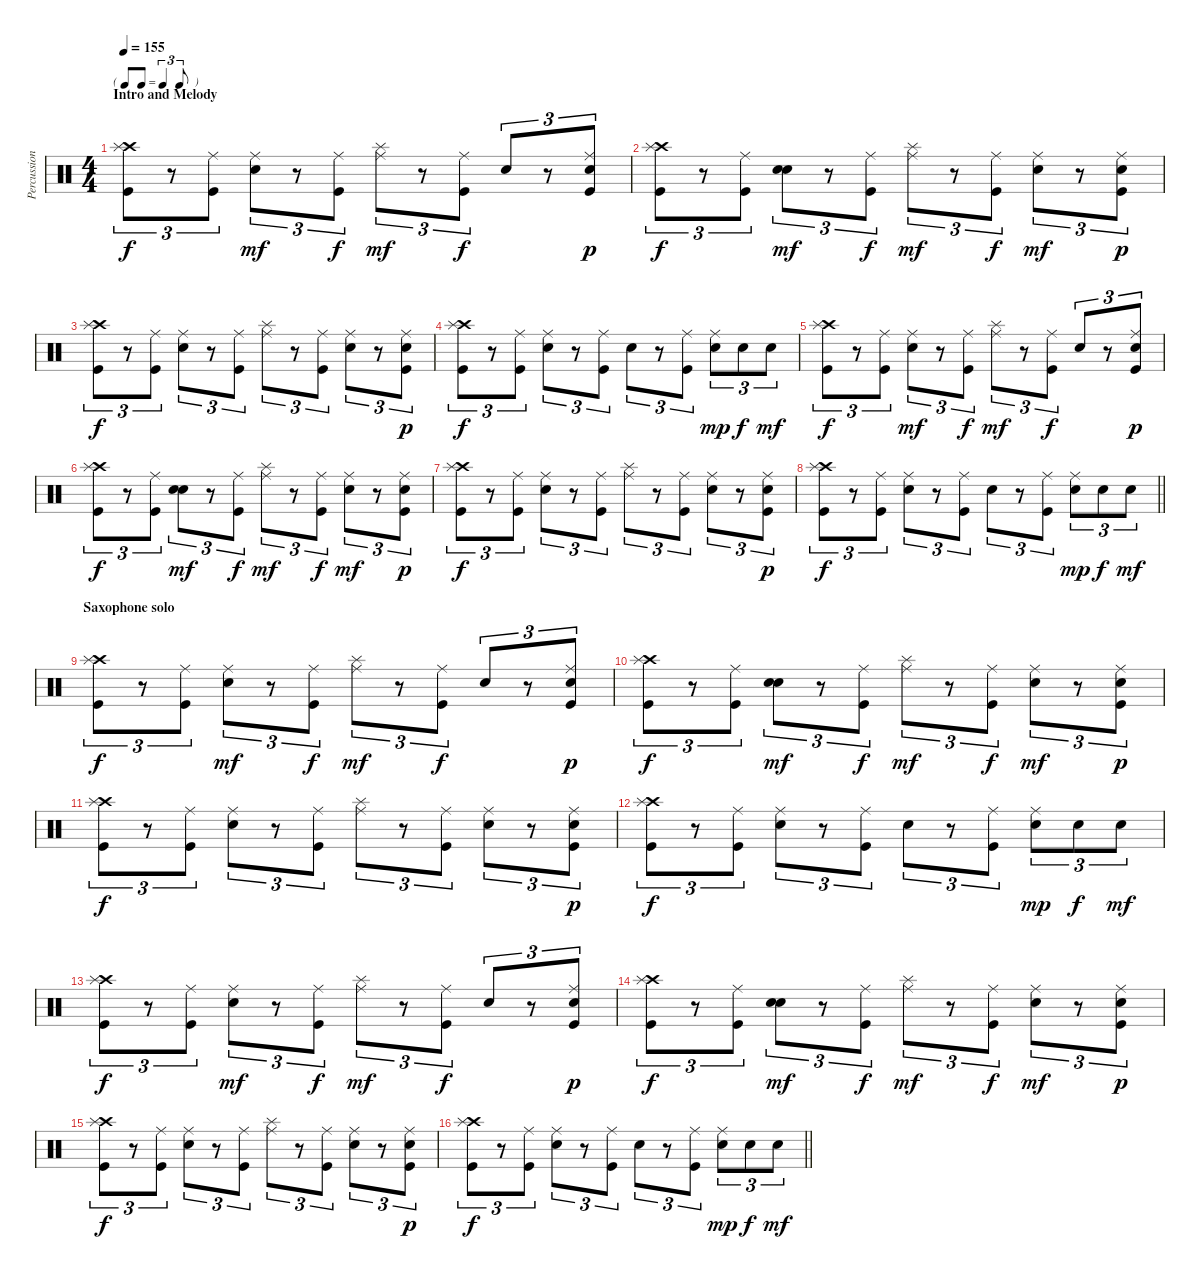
\track ("Percussion" "Percussion") {instrument percussion}
\staff {score}
\articulation defaults
\ts (4 4)
\tf triplet8th
\section ("" "Intro and Melody")
\tempo 155
\clef neutral
\ks c
("Crash high (hit)" "Splash (hit)" "Kick (hit)").8{tu (3 2) dy f} r.8{tu (3 2)} ("Ride (middle)" "Kick (hit)").8{tu (3 2)} ("Ride (middle)" "Electric Snare (hit)").8{tu (3 2) dy mf} r.8{tu (3 2)} ("Ride (middle)" "Kick (hit)").8{tu (3 2) dy f} ("Ride (middle)" "Splash (hit)").8{tu (3 2) dy mf} r.8{tu (3 2)} ("Ride (middle)" "Kick (hit)").8{tu (3 2) dy f} "Electric Snare (hit)".8{tu (3 2)} r.8{tu (3 2)} ("Ride (middle)" "Electric Snare (hit)" "Kick (hit)").8{tu (3 2) dy p} |
("Crash high (hit)" "Splash (hit)" "Kick (hit)").8{tu (3 2) dy f} r.8{tu (3 2)} ("Ride (middle)" "Kick (hit)").8{tu (3 2)} ("Snare (hit)" "Electric Snare (hit)").8{tu (3 2) dy mf} r.8{tu (3 2)} ("Ride (middle)" "Kick (hit)").8{tu (3 2) dy f} ("Ride (middle)" "Splash (hit)").8{tu (3 2) dy mf} r.8{tu (3 2)} ("Ride (middle)" "Kick (hit)").8{tu (3 2) dy f} ("Ride (middle)" "Electric Snare (hit)").8{tu (3 2) dy mf} r.8{tu (3 2)} ("Ride (middle)" "Electric Snare (hit)" "Kick (hit)").8{tu (3 2) dy p} |
("Crash high (hit)" "Splash (hit)" "Kick (hit)").8{tu (3 2) dy f} r.8{tu (3 2)} ("Ride (middle)" "Kick (hit)").8{tu (3 2)} ("Ride (middle)" "Electric Snare (hit)").8{tu (3 2)} r.8{tu (3 2)} ("Ride (middle)" "Kick (hit)").8{tu (3 2)} ("Ride (middle)" "Splash (hit)").8{tu (3 2)} r.8{tu (3 2)} ("Ride (middle)" "Kick (hit)").8{tu (3 2)} ("Ride (middle)" "Electric Snare (hit)").8{tu (3 2)} r.8{tu (3 2)} ("Ride (middle)" "Electric Snare (hit)" "Kick (hit)").8{tu (3 2) dy p} |
("Crash high (hit)" "Splash (hit)" "Kick (hit)").8{tu (3 2) dy f} r.8{tu (3 2)} ("Ride (middle)" "Kick (hit)").8{tu (3 2)} ("Ride (middle)" "Electric Snare (hit)").8{tu (3 2)} r.8{tu (3 2)} ("Ride (middle)" "Kick (hit)").8{tu (3 2)} "Electric Snare (hit)".8{tu (3 2)} r.8{tu (3 2)} ("Ride (middle)" "Kick (hit)").8{tu (3 2)} ("Ride (middle)" "Electric Snare (hit)").8{tu (3 2) dy mp} "Electric Snare (hit)".8{tu (3 2) dy f} "Electric Snare (hit)".8{tu (3 2) dy mf} |
("Crash high (hit)" "Splash (hit)" "Kick (hit)").8{tu (3 2) dy f} r.8{tu (3 2)} ("Ride (middle)" "Kick (hit)").8{tu (3 2)} ("Ride (middle)" "Electric Snare (hit)").8{tu (3 2) dy mf} r.8{tu (3 2)} ("Ride (middle)" "Kick (hit)").8{tu (3 2) dy f} ("Ride (middle)" "Splash (hit)").8{tu (3 2) dy mf} r.8{tu (3 2)} ("Ride (middle)" "Kick (hit)").8{tu (3 2) dy f} "Electric Snare (hit)".8{tu (3 2)} r.8{tu (3 2)} ("Ride (middle)" "Electric Snare (hit)" "Kick (hit)").8{tu (3 2) dy p} |
("Crash high (hit)" "Splash (hit)" "Kick (hit)").8{tu (3 2) dy f} r.8{tu (3 2)} ("Ride (middle)" "Kick (hit)").8{tu (3 2)} ("Snare (hit)" "Electric Snare (hit)").8{tu (3 2) dy mf} r.8{tu (3 2)} ("Ride (middle)" "Kick (hit)").8{tu (3 2) dy f} ("Ride (middle)" "Splash (hit)").8{tu (3 2) dy mf} r.8{tu (3 2)} ("Ride (middle)" "Kick (hit)").8{tu (3 2) dy f} ("Ride (middle)" "Electric Snare (hit)").8{tu (3 2) dy mf} r.8{tu (3 2)} ("Ride (middle)" "Electric Snare (hit)" "Kick (hit)").8{tu (3 2) dy p} |
("Crash high (hit)" "Splash (hit)" "Kick (hit)").8{tu (3 2) dy f} r.8{tu (3 2)} ("Ride (middle)" "Kick (hit)").8{tu (3 2)} ("Ride (middle)" "Electric Snare (hit)").8{tu (3 2)} r.8{tu (3 2)} ("Ride (middle)" "Kick (hit)").8{tu (3 2)} ("Ride (middle)" "Splash (hit)").8{tu (3 2)} r.8{tu (3 2)} ("Ride (middle)" "Kick (hit)").8{tu (3 2)} ("Ride (middle)" "Electric Snare (hit)").8{tu (3 2)} r.8{tu (3 2)} ("Ride (middle)" "Electric Snare (hit)" "Kick (hit)").8{tu (3 2) dy p} |
\barLineRight lightlight
("Crash high (hit)" "Splash (hit)" "Kick (hit)").8{tu (3 2) dy f} r.8{tu (3 2)} ("Ride (middle)" "Kick (hit)").8{tu (3 2)} ("Ride (middle)" "Electric Snare (hit)").8{tu (3 2)} r.8{tu (3 2)} ("Ride (middle)" "Kick (hit)").8{tu (3 2)} "Electric Snare (hit)".8{tu (3 2)} r.8{tu (3 2)} ("Ride (middle)" "Kick (hit)").8{tu (3 2)} ("Ride (middle)" "Electric Snare (hit)").8{tu (3 2) dy mp} "Electric Snare (hit)".8{tu (3 2) dy f} "Electric Snare (hit)".8{tu (3 2) dy mf} |
\section ("" "Saxophone solo")
("Crash high (hit)" "Splash (hit)" "Kick (hit)").8{tu (3 2) dy f} r.8{tu (3 2)} ("Ride (middle)" "Kick (hit)").8{tu (3 2)} ("Ride (middle)" "Electric Snare (hit)").8{tu (3 2) dy mf} r.8{tu (3 2)} ("Ride (middle)" "Kick (hit)").8{tu (3 2) dy f} ("Ride (middle)" "Splash (hit)").8{tu (3 2) dy mf} r.8{tu (3 2)} ("Ride (middle)" "Kick (hit)").8{tu (3 2) dy f} "Electric Snare (hit)".8{tu (3 2)} r.8{tu (3 2)} ("Ride (middle)" "Electric Snare (hit)" "Kick (hit)").8{tu (3 2) dy p} |
("Crash high (hit)" "Splash (hit)" "Kick (hit)").8{tu (3 2) dy f} r.8{tu (3 2)} ("Ride (middle)" "Kick (hit)").8{tu (3 2)} ("Snare (hit)" "Electric Snare (hit)").8{tu (3 2) dy mf} r.8{tu (3 2)} ("Ride (middle)" "Kick (hit)").8{tu (3 2) dy f} ("Ride (middle)" "Splash (hit)").8{tu (3 2) dy mf} r.8{tu (3 2)} ("Ride (middle)" "Kick (hit)").8{tu (3 2) dy f} ("Ride (middle)" "Electric Snare (hit)").8{tu (3 2) dy mf} r.8{tu (3 2)} ("Ride (middle)" "Electric Snare (hit)" "Kick (hit)").8{tu (3 2) dy p} |
("Crash high (hit)" "Splash (hit)" "Kick (hit)").8{tu (3 2) dy f} r.8{tu (3 2)} ("Ride (middle)" "Kick (hit)").8{tu (3 2)} ("Ride (middle)" "Electric Snare (hit)").8{tu (3 2)} r.8{tu (3 2)} ("Ride (middle)" "Kick (hit)").8{tu (3 2)} ("Ride (middle)" "Splash (hit)").8{tu (3 2)} r.8{tu (3 2)} ("Ride (middle)" "Kick (hit)").8{tu (3 2)} ("Ride (middle)" "Electric Snare (hit)").8{tu (3 2)} r.8{tu (3 2)} ("Ride (middle)" "Electric Snare (hit)" "Kick (hit)").8{tu (3 2) dy p} |
("Crash high (hit)" "Splash (hit)" "Kick (hit)").8{tu (3 2) dy f} r.8{tu (3 2)} ("Ride (middle)" "Kick (hit)").8{tu (3 2)} ("Ride (middle)" "Electric Snare (hit)").8{tu (3 2)} r.8{tu (3 2)} ("Ride (middle)" "Kick (hit)").8{tu (3 2)} "Electric Snare (hit)".8{tu (3 2)} r.8{tu (3 2)} ("Ride (middle)" "Kick (hit)").8{tu (3 2)} ("Ride (middle)" "Electric Snare (hit)").8{tu (3 2) dy mp} "Electric Snare (hit)".8{tu (3 2) dy f} "Electric Snare (hit)".8{tu (3 2) dy mf} |
("Crash high (hit)" "Splash (hit)" "Kick (hit)").8{tu (3 2) dy f} r.8{tu (3 2)} ("Ride (middle)" "Kick (hit)").8{tu (3 2)} ("Ride (middle)" "Electric Snare (hit)").8{tu (3 2) dy mf} r.8{tu (3 2)} ("Ride (middle)" "Kick (hit)").8{tu (3 2) dy f} ("Ride (middle)" "Splash (hit)").8{tu (3 2) dy mf} r.8{tu (3 2)} ("Ride (middle)" "Kick (hit)").8{tu (3 2) dy f} "Electric Snare (hit)".8{tu (3 2)} r.8{tu (3 2)} ("Ride (middle)" "Electric Snare (hit)" "Kick (hit)").8{tu (3 2) dy p} |
("Crash high (hit)" "Splash (hit)" "Kick (hit)").8{tu (3 2) dy f} r.8{tu (3 2)} ("Ride (middle)" "Kick (hit)").8{tu (3 2)} ("Snare (hit)" "Electric Snare (hit)").8{tu (3 2) dy mf} r.8{tu (3 2)} ("Ride (middle)" "Kick (hit)").8{tu (3 2) dy f} ("Ride (middle)" "Splash (hit)").8{tu (3 2) dy mf} r.8{tu (3 2)} ("Ride (middle)" "Kick (hit)").8{tu (3 2) dy f} ("Ride (middle)" "Electric Snare (hit)").8{tu (3 2) dy mf} r.8{tu (3 2)} ("Ride (middle)" "Electric Snare (hit)" "Kick (hit)").8{tu (3 2) dy p} |
("Crash high (hit)" "Splash (hit)" "Kick (hit)").8{tu (3 2) dy f} r.8{tu (3 2)} ("Ride (middle)" "Kick (hit)").8{tu (3 2)} ("Ride (middle)" "Electric Snare (hit)").8{tu (3 2)} r.8{tu (3 2)} ("Ride (middle)" "Kick (hit)").8{tu (3 2)} ("Ride (middle)" "Splash (hit)").8{tu (3 2)} r.8{tu (3 2)} ("Ride (middle)" "Kick (hit)").8{tu (3 2)} ("Ride (middle)" "Electric Snare (hit)").8{tu (3 2)} r.8{tu (3 2)} ("Ride (middle)" "Electric Snare (hit)" "Kick (hit)").8{tu (3 2) dy p} |
\barLineRight lightlight
("Crash high (hit)" "Splash (hit)" "Kick (hit)").8{tu (3 2) dy f} r.8{tu (3 2)} ("Ride (middle)" "Kick (hit)").8{tu (3 2)} ("Ride (middle)" "Electric Snare (hit)").8{tu (3 2)} r.8{tu (3 2)} ("Ride (middle)" "Kick (hit)").8{tu (3 2)} "Electric Snare (hit)".8{tu (3 2)} r.8{tu (3 2)} ("Ride (middle)" "Kick (hit)").8{tu (3 2)} ("Ride (middle)" "Electric Snare (hit)").8{tu (3 2) dy mp} "Electric Snare (hit)".8{tu (3 2) dy f} "Electric Snare (hit)".8{tu (3 2) dy mf}
